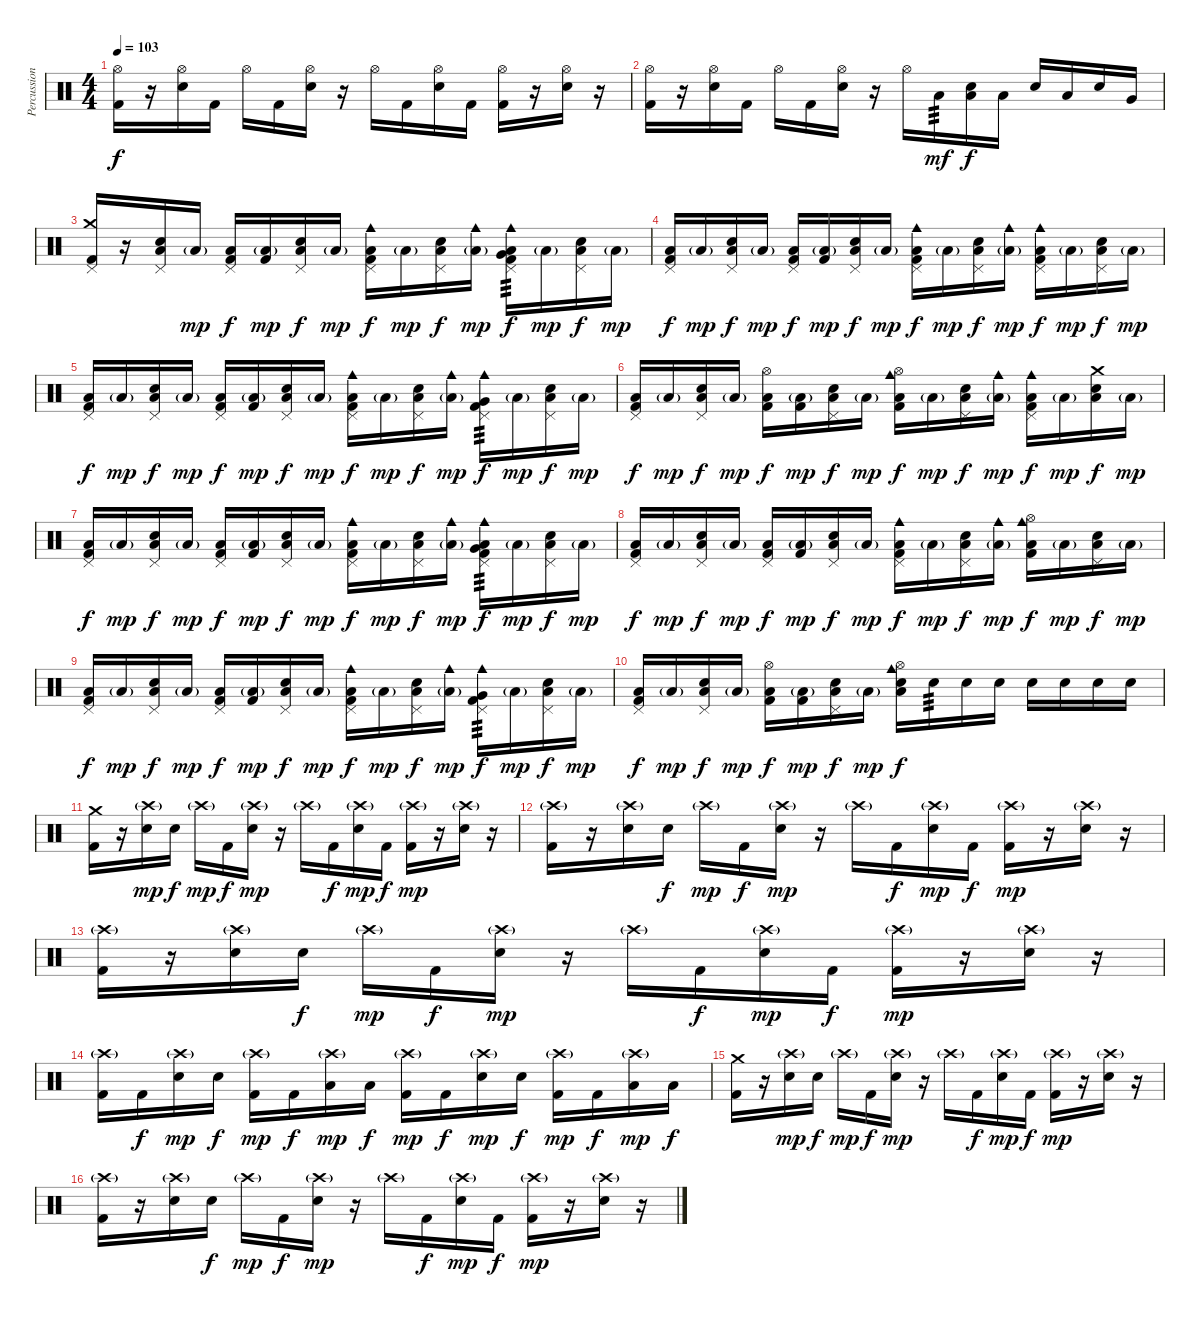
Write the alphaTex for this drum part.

\track ("Percussion" "Percussion") {instrument percussion}
\staff {score}
\articulation defaults
\ts (4 4)
\tempo 103
\clef neutral
\ks c
("Hi-Hat (open)" "Kick (hit) 2").16{dy f} r.16 ("Hi-Hat (open)" "Electric Snare (hit)").16 "Kick (hit) 2".16 "Hi-Hat (open)".16 "Kick (hit) 2".16 ("Hi-Hat (open)" "Electric Snare (hit)").16 r.16 "Hi-Hat (open)".16 "Kick (hit) 2".16 ("Hi-Hat (open)" "Electric Snare (hit)").16 "Kick (hit) 2".16 ("Hi-Hat (open)" "Kick (hit) 2").16 r.16 ("Hi-Hat (open)" "Electric Snare (hit)").16 r.16 |
("Hi-Hat (open)" "Kick (hit) 2").16 r.16 ("Hi-Hat (open)" "Electric Snare (hit)").16 "Kick (hit) 2".16 "Hi-Hat (open)".16 "Kick (hit) 2".16 ("Hi-Hat (open)" "Electric Snare (hit)").16 r.16 "Hi-Hat (open)".16 "Low Tom (hit)".16{tp 3 dy mf} ("Low Tom (hit)" "Electric Snare (hit)").16{dy f} "Low Tom (hit)".16 "Electric Snare (hit)".16 "Low Tom (hit)".16 "Electric Snare (hit)".16 "Very Low Tom (hit)".16 |
("Crash medium (hit)" "Kick (hit) 2" "Pedal Hi-Hat (hit)").16 r.16 ("Low Floor Tom (hit)" "Electric Snare (hit)" "Pedal Hi-Hat (hit)").16 "Low Floor Tom (hit)"{g}.16{dy mp} ("Low Floor Tom (hit)" "Kick (hit) 2" "Pedal Hi-Hat (hit)").16{dy f} ("Low Floor Tom (hit)"{g} "Kick (hit) 2").16{dy mp} ("Low Floor Tom (hit)" "Electric Snare (hit)" "Pedal Hi-Hat (hit)").16{dy f} "Low Floor Tom (hit)"{g}.16{dy mp} ("Low Floor Tom (hit)" "Kick (hit) 2" "Cowbell medium (hit)" "Pedal Hi-Hat (hit)").16{dy f} "Low Floor Tom (hit)"{g}.16{dy mp} ("Low Floor Tom (hit)" "Electric Snare (hit)" "Pedal Hi-Hat (hit)").16{dy f} ("Low Floor Tom (hit)"{g} "Cowbell medium (hit)").16{dy mp} ("Low Floor Tom (hit)" "Kick (hit) 2" "Cowbell medium (hit)" "Pedal Hi-Hat (hit)" "Very Low Tom (hit)").16{tp 3 dy f} "Low Floor Tom (hit)"{g}.16{dy mp} ("Low Floor Tom (hit)" "Electric Snare (hit)" "Pedal Hi-Hat (hit)").16{dy f} "Low Floor Tom (hit)"{g}.16{dy mp} |
("Low Floor Tom (hit)" "Kick (hit) 2" "Pedal Hi-Hat (hit)").16{dy f} "Low Floor Tom (hit)"{g}.16{dy mp} ("Low Floor Tom (hit)" "Electric Snare (hit)" "Pedal Hi-Hat (hit)").16{dy f} "Low Floor Tom (hit)"{g}.16{dy mp} ("Low Floor Tom (hit)" "Kick (hit) 2" "Pedal Hi-Hat (hit)").16{dy f} ("Low Floor Tom (hit)"{g} "Kick (hit) 2").16{dy mp} ("Low Floor Tom (hit)" "Electric Snare (hit)" "Pedal Hi-Hat (hit)").16{dy f} "Low Floor Tom (hit)"{g}.16{dy mp} ("Low Floor Tom (hit)" "Kick (hit) 2" "Cowbell medium (hit)" "Pedal Hi-Hat (hit)").16{dy f} "Low Floor Tom (hit)"{g}.16{dy mp} ("Low Floor Tom (hit)" "Electric Snare (hit)" "Pedal Hi-Hat (hit)").16{dy f} ("Low Floor Tom (hit)"{g} "Cowbell medium (hit)").16{dy mp} ("Low Floor Tom (hit)" "Kick (hit) 2" "Cowbell medium (hit)" "Pedal Hi-Hat (hit)").16{dy f} "Low Floor Tom (hit)"{g}.16{dy mp} ("Low Floor Tom (hit)" "Electric Snare (hit)" "Pedal Hi-Hat (hit)").16{dy f} "Low Floor Tom (hit)"{g}.16{dy mp} |
("Low Floor Tom (hit)" "Kick (hit) 2" "Pedal Hi-Hat (hit)").16{dy f} "Low Floor Tom (hit)"{g}.16{dy mp} ("Low Floor Tom (hit)" "Electric Snare (hit)" "Pedal Hi-Hat (hit)").16{dy f} "Low Floor Tom (hit)"{g}.16{dy mp} ("Low Floor Tom (hit)" "Kick (hit) 2" "Pedal Hi-Hat (hit)").16{dy f} ("Low Floor Tom (hit)"{g} "Kick (hit) 2").16{dy mp} ("Low Floor Tom (hit)" "Electric Snare (hit)" "Pedal Hi-Hat (hit)").16{dy f} "Low Floor Tom (hit)"{g}.16{dy mp} ("Low Floor Tom (hit)" "Kick (hit) 2" "Cowbell medium (hit)" "Pedal Hi-Hat (hit)").16{dy f} "Low Floor Tom (hit)"{g}.16{dy mp} ("Low Floor Tom (hit)" "Electric Snare (hit)" "Pedal Hi-Hat (hit)").16{dy f} ("Low Floor Tom (hit)"{g} "Cowbell medium (hit)").16{dy mp} ("Very Low Tom (hit)" "Kick (hit) 2" "Cowbell medium (hit)" "Pedal Hi-Hat (hit)").16{tp 3 dy f} "Low Floor Tom (hit)"{g}.16{dy mp} ("Low Floor Tom (hit)" "Electric Snare (hit)" "Pedal Hi-Hat (hit)").16{dy f} "Low Floor Tom (hit)"{g}.16{dy mp} |
("Low Floor Tom (hit)" "Kick (hit) 2" "Pedal Hi-Hat (hit)").16{dy f} "Low Floor Tom (hit)"{g}.16{dy mp} ("Low Floor Tom (hit)" "Electric Snare (hit)" "Pedal Hi-Hat (hit)").16{dy f} "Low Floor Tom (hit)"{g}.16{dy mp} ("Low Floor Tom (hit)" "Kick (hit) 2" "Hi-Hat (open)").16{dy f} ("Low Floor Tom (hit)"{g} "Kick (hit) 2").16{dy mp} ("Low Floor Tom (hit)" "Electric Snare (hit)" "Pedal Hi-Hat (hit)").16{dy f} "Low Floor Tom (hit)"{g}.16{dy mp} ("Low Floor Tom (hit)" "Kick (hit) 2" "Cowbell medium (hit)" "Hi-Hat (open)").16{dy f} "Low Floor Tom (hit)"{g}.16{dy mp} ("Low Floor Tom (hit)" "Electric Snare (hit)" "Pedal Hi-Hat (hit)").16{dy f} ("Low Floor Tom (hit)"{g} "Cowbell medium (hit)").16{dy mp} ("Low Floor Tom (hit)" "Kick (hit) 2" "Cowbell medium (hit)" "Pedal Hi-Hat (hit)").16{dy f} "Low Floor Tom (hit)"{g}.16{dy mp} ("Low Floor Tom (hit)" "Electric Snare (hit)" "Crash medium (hit)").16{dy f} "Low Floor Tom (hit)"{g}.16{dy mp} |
("Low Floor Tom (hit)" "Kick (hit) 2" "Pedal Hi-Hat (hit)").16{dy f} "Low Floor Tom (hit)"{g}.16{dy mp} ("Low Floor Tom (hit)" "Electric Snare (hit)" "Pedal Hi-Hat (hit)").16{dy f} "Low Floor Tom (hit)"{g}.16{dy mp} ("Low Floor Tom (hit)" "Kick (hit) 2" "Pedal Hi-Hat (hit)").16{dy f} ("Low Floor Tom (hit)"{g} "Kick (hit) 2").16{dy mp} ("Low Floor Tom (hit)" "Electric Snare (hit)" "Pedal Hi-Hat (hit)").16{dy f} "Low Floor Tom (hit)"{g}.16{dy mp} ("Low Floor Tom (hit)" "Kick (hit) 2" "Cowbell medium (hit)" "Pedal Hi-Hat (hit)").16{dy f} "Low Floor Tom (hit)"{g}.16{dy mp} ("Low Floor Tom (hit)" "Electric Snare (hit)" "Pedal Hi-Hat (hit)").16{dy f} ("Low Floor Tom (hit)"{g} "Cowbell medium (hit)").16{dy mp} ("Low Floor Tom (hit)" "Kick (hit) 2" "Cowbell medium (hit)" "Pedal Hi-Hat (hit)" "Very Low Tom (hit)").16{tp 3 dy f} "Low Floor Tom (hit)"{g}.16{dy mp} ("Low Floor Tom (hit)" "Electric Snare (hit)" "Pedal Hi-Hat (hit)").16{dy f} "Low Floor Tom (hit)"{g}.16{dy mp} |
("Low Floor Tom (hit)" "Kick (hit) 2" "Pedal Hi-Hat (hit)").16{dy f} "Low Floor Tom (hit)"{g}.16{dy mp} ("Low Floor Tom (hit)" "Electric Snare (hit)" "Pedal Hi-Hat (hit)").16{dy f} "Low Floor Tom (hit)"{g}.16{dy mp} ("Low Floor Tom (hit)" "Kick (hit) 2" "Pedal Hi-Hat (hit)").16{dy f} ("Low Floor Tom (hit)"{g} "Kick (hit) 2").16{dy mp} ("Low Floor Tom (hit)" "Electric Snare (hit)" "Pedal Hi-Hat (hit)").16{dy f} "Low Floor Tom (hit)"{g}.16{dy mp} ("Low Floor Tom (hit)" "Kick (hit) 2" "Cowbell medium (hit)" "Pedal Hi-Hat (hit)").16{dy f} "Low Floor Tom (hit)"{g}.16{dy mp} ("Low Floor Tom (hit)" "Electric Snare (hit)" "Pedal Hi-Hat (hit)").16{dy f} ("Low Floor Tom (hit)"{g} "Cowbell medium (hit)").16{dy mp} ("Low Floor Tom (hit)" "Kick (hit) 2" "Cowbell medium (hit)" "Hi-Hat (open)").16{dy f} "Low Floor Tom (hit)"{g}.16{dy mp} ("Low Floor Tom (hit)" "Electric Snare (hit)" "Pedal Hi-Hat (hit)").16{dy f} "Low Floor Tom (hit)"{g}.16{dy mp} |
("Low Floor Tom (hit)" "Kick (hit) 2" "Pedal Hi-Hat (hit)").16{dy f} "Low Floor Tom (hit)"{g}.16{dy mp} ("Low Floor Tom (hit)" "Electric Snare (hit)" "Pedal Hi-Hat (hit)").16{dy f} "Low Floor Tom (hit)"{g}.16{dy mp} ("Low Floor Tom (hit)" "Kick (hit) 2" "Pedal Hi-Hat (hit)").16{dy f} ("Low Floor Tom (hit)"{g} "Kick (hit) 2").16{dy mp} ("Low Floor Tom (hit)" "Electric Snare (hit)" "Pedal Hi-Hat (hit)").16{dy f} "Low Floor Tom (hit)"{g}.16{dy mp} ("Low Floor Tom (hit)" "Kick (hit) 2" "Cowbell medium (hit)" "Pedal Hi-Hat (hit)").16{dy f} "Low Floor Tom (hit)"{g}.16{dy mp} ("Low Floor Tom (hit)" "Electric Snare (hit)" "Pedal Hi-Hat (hit)").16{dy f} ("Low Floor Tom (hit)"{g} "Cowbell medium (hit)").16{dy mp} ("Very Low Tom (hit)" "Kick (hit) 2" "Cowbell medium (hit)" "Pedal Hi-Hat (hit)").16{tp 3 dy f} "Low Floor Tom (hit)"{g}.16{dy mp} ("Low Floor Tom (hit)" "Electric Snare (hit)" "Pedal Hi-Hat (hit)").16{dy f} "Low Floor Tom (hit)"{g}.16{dy mp} |
("Low Floor Tom (hit)" "Kick (hit) 2" "Pedal Hi-Hat (hit)").16{dy f} "Low Floor Tom (hit)"{g}.16{dy mp} ("Low Floor Tom (hit)" "Electric Snare (hit)" "Pedal Hi-Hat (hit)").16{dy f} "Low Floor Tom (hit)"{g}.16{dy mp} ("Low Floor Tom (hit)" "Kick (hit) 2" "Hi-Hat (open)").16{dy f} ("Low Floor Tom (hit)"{g} "Kick (hit) 2").16{dy mp} ("Low Floor Tom (hit)" "Electric Snare (hit)" "Pedal Hi-Hat (hit)").16{dy f} "Low Floor Tom (hit)"{g}.16{dy mp} ("Low Floor Tom (hit)" "Electric Snare (hit)" "Cowbell medium (hit)" "Hi-Hat (open)").16{dy f} "Electric Snare (hit)".16{tp 3} "Electric Snare (hit)".16 "Electric Snare (hit)".16 "Electric Snare (hit)".16 "Electric Snare (hit)".16 "Electric Snare (hit)".16 "Electric Snare (hit)".16 |
("Crash medium (hit)" "Kick (hit) 2").16 r.16 ("Crash high (hit)"{g} "Electric Snare (hit)").16{dy mp} "Electric Snare (hit)".16{dy f} "Crash high (hit)"{g}.16{dy mp} "Kick (hit) 2".16{dy f} ("Crash high (hit)"{g} "Electric Snare (hit)").16{dy mp} r.16 "Crash high (hit)"{g}.16 "Kick (hit) 2".16{dy f} ("Crash high (hit)"{g} "Electric Snare (hit)").16{dy mp} "Kick (hit) 2".16{dy f} ("Crash high (hit)"{g} "Kick (hit) 2").16{dy mp} r.16 ("Crash high (hit)"{g} "Electric Snare (hit)").16 r.16 |
("Crash high (hit)"{g} "Kick (hit) 2").16 r.16 ("Crash high (hit)"{g} "Electric Snare (hit)").16 "Electric Snare (hit)".16{dy f} "Crash high (hit)"{g}.16{dy mp} "Kick (hit) 2".16{dy f} ("Crash high (hit)"{g} "Electric Snare (hit)").16{dy mp} r.16 "Crash high (hit)"{g}.16 "Kick (hit) 2".16{dy f} ("Crash high (hit)"{g} "Electric Snare (hit)").16{dy mp} "Kick (hit) 2".16{dy f} ("Crash high (hit)"{g} "Kick (hit) 2").16{dy mp} r.16 ("Crash high (hit)"{g} "Electric Snare (hit)").16 r.16 |
("Crash high (hit)"{g} "Kick (hit) 2").16 r.16 ("Crash high (hit)"{g} "Electric Snare (hit)").16 "Electric Snare (hit)".16{dy f} "Crash high (hit)"{g}.16{dy mp} "Kick (hit) 2".16{dy f} ("Crash high (hit)"{g} "Electric Snare (hit)").16{dy mp} r.16 "Crash high (hit)"{g}.16 "Kick (hit) 2".16{dy f} ("Crash high (hit)"{g} "Electric Snare (hit)").16{dy mp} "Kick (hit) 2".16{dy f} ("Crash high (hit)"{g} "Kick (hit) 2").16{dy mp} r.16 ("Crash high (hit)"{g} "Electric Snare (hit)").16 r.16 |
("Crash high (hit)"{g} "Kick (hit) 2").16 "Kick (hit) 2".16{dy f} ("Crash high (hit)"{g} "Electric Snare (hit)").16{dy mp} "Electric Snare (hit)".16{dy f} ("Crash high (hit)"{g} "Kick (hit) 2").16{dy mp} "Kick (hit) 2".16{dy f} ("Crash high (hit)"{g} "Low Tom (hit)").16{dy mp} "Low Tom (hit)".16{dy f} ("Crash high (hit)"{g} "Kick (hit) 2").16{dy mp} "Kick (hit) 2".16{dy f} ("Crash high (hit)"{g} "Electric Snare (hit)").16{dy mp} "Electric Snare (hit)".16{dy f} ("Crash high (hit)"{g} "Kick (hit) 2").16{dy mp} "Kick (hit) 2".16{dy f} ("Crash high (hit)"{g} "Low Tom (hit)").16{dy mp} "Low Tom (hit)".16{dy f} |
("Crash medium (hit)" "Kick (hit) 2").16 r.16 ("Crash high (hit)"{g} "Electric Snare (hit)").16{dy mp} "Electric Snare (hit)".16{dy f} "Crash high (hit)"{g}.16{dy mp} "Kick (hit) 2".16{dy f} ("Crash high (hit)"{g} "Electric Snare (hit)").16{dy mp} r.16 "Crash high (hit)"{g}.16 "Kick (hit) 2".16{dy f} ("Crash high (hit)"{g} "Electric Snare (hit)").16{dy mp} "Kick (hit) 2".16{dy f} ("Crash high (hit)"{g} "Kick (hit) 2").16{dy mp} r.16 ("Crash high (hit)"{g} "Electric Snare (hit)").16 r.16 |
("Crash high (hit)"{g} "Kick (hit) 2").16 r.16 ("Crash high (hit)"{g} "Electric Snare (hit)").16 "Electric Snare (hit)".16{dy f} "Crash high (hit)"{g}.16{dy mp} "Kick (hit) 2".16{dy f} ("Crash high (hit)"{g} "Electric Snare (hit)").16{dy mp} r.16 "Crash high (hit)"{g}.16 "Kick (hit) 2".16{dy f} ("Crash high (hit)"{g} "Electric Snare (hit)").16{dy mp} "Kick (hit) 2".16{dy f} ("Crash high (hit)"{g} "Kick (hit) 2").16{dy mp} r.16 ("Crash high (hit)"{g} "Electric Snare (hit)").16 r.16
